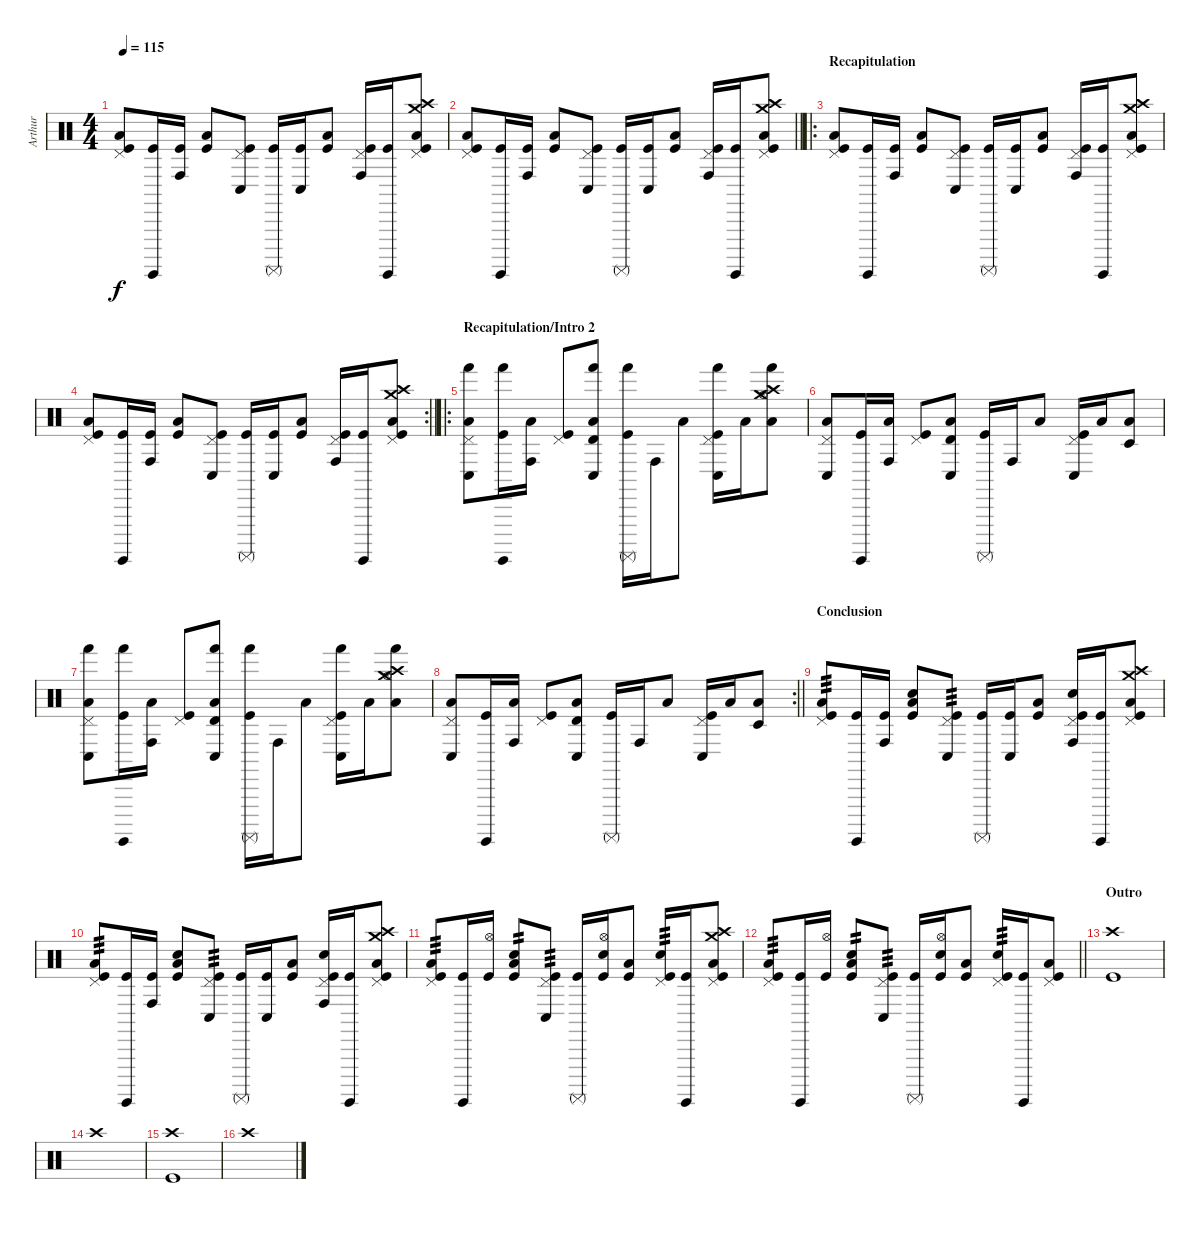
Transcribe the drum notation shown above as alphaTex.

\track ("Arthur" "Arthur") {instrument percussion}
\staff {score}
\articulation defaults
\ts (4 4)
\tempo 115
\clef neutral
\ks c
("Low Tom (hit)" "Pedal Hi-Hat (hit)" "Kick (hit)").8{dy f} ("Surdo (hit)" "Kick (hit)").16 ("Conga high (hit)" "Kick (hit)").16 ("Low Floor Tom (hit)" "Kick (hit)").8 ("Conga low (hit)" "Pedal Hi-Hat (hit)" "Kick (hit)").8 ("Surdo (mute)" "Kick (hit)").16 ("Conga low (hit)" "Kick (hit)").16 ("Low Tom (hit)" "Kick (hit)").8 ("Conga high (hit)" "Pedal Hi-Hat (hit)" "Kick (hit)").16 ("Surdo (hit)" "Kick (hit)").16 ("Crash high (hit)" "Crash medium (hit)" "Low Floor Tom (hit)" "Pedal Hi-Hat (hit)" "Kick (hit)").8 |
\barLineRight lightlight
("Low Tom (hit)" "Pedal Hi-Hat (hit)" "Kick (hit)").8 ("Surdo (hit)" "Kick (hit)").16 ("Conga high (hit)" "Kick (hit)").16 ("Low Floor Tom (hit)" "Kick (hit)").8 ("Conga low (hit)" "Pedal Hi-Hat (hit)" "Kick (hit)").8 ("Surdo (mute)" "Kick (hit)").16 ("Conga low (hit)" "Kick (hit)").16 ("Low Tom (hit)" "Kick (hit)").8 ("Conga high (hit)" "Pedal Hi-Hat (hit)" "Kick (hit)").16 ("Surdo (hit)" "Kick (hit)").16 ("Crash high (hit)" "Crash medium (hit)" "Low Floor Tom (hit)" "Pedal Hi-Hat (hit)" "Kick (hit)").8 |
\ro
\section ("" "Recapitulation")
("Low Tom (hit)" "Pedal Hi-Hat (hit)" "Kick (hit)").8 ("Surdo (hit)" "Kick (hit)").16 ("Conga high (hit)" "Kick (hit)").16 ("Low Floor Tom (hit)" "Kick (hit)").8 ("Conga low (hit)" "Pedal Hi-Hat (hit)" "Kick (hit)").8 ("Surdo (mute)" "Kick (hit)").16 ("Conga low (hit)" "Kick (hit)").16 ("Low Tom (hit)" "Kick (hit)").8 ("Conga high (hit)" "Pedal Hi-Hat (hit)" "Kick (hit)").16 ("Surdo (hit)" "Kick (hit)").16 ("Crash high (hit)" "Crash medium (hit)" "Low Floor Tom (hit)" "Pedal Hi-Hat (hit)" "Kick (hit)").8 |
\rc 2
\barLineRight lightlight
("Low Tom (hit)" "Pedal Hi-Hat (hit)" "Kick (hit)").8 ("Surdo (hit)" "Kick (hit)").16 ("Conga high (hit)" "Kick (hit)").16 ("Low Floor Tom (hit)" "Kick (hit)").8 ("Conga low (hit)" "Pedal Hi-Hat (hit)" "Kick (hit)").8 ("Surdo (mute)" "Kick (hit)").16 ("Conga low (hit)" "Kick (hit)").16 ("Low Tom (hit)" "Kick (hit)").8 ("Conga high (hit)" "Pedal Hi-Hat (hit)" "Kick (hit)").16 ("Surdo (hit)" "Kick (hit)").16 ("Crash high (hit)" "Crash medium (hit)" "Low Floor Tom (hit)" "Pedal Hi-Hat (hit)" "Kick (hit)").8 |
\ro
\section ("" "Recapitulation/Intro 2")
("Conga low (hit)" "Pedal Hi-Hat (hit)" "Low Tom (hit)" "Hand (hit)").8 ("Hand (hit)" "Surdo (hit)" "Kick (hit)").16 ("Conga high (hit)" "Low Floor Tom (hit)").16 ("Pedal Hi-Hat (hit)" "Kick (hit)").8 ("Conga low (hit)" "Timbale high (hit)" "Low Tom (hit)" "Hand (hit)").8 ("Hand (hit)" "Surdo (mute)" "Kick (hit)").16 "Conga high (hit)".16 "Low Floor Tom (hit)".8 ("Conga low (hit)" "Hand (hit)" "Pedal Hi-Hat (hit)" "Kick (hit)").16 "Low Tom (hit)".16 ("Hi-Hat (open)" "Crash medium (hit)" "Crash high (hit)" "Low Tom (hit)" "Hand (hit)").8 |
("Conga low (hit)" "Pedal Hi-Hat (hit)" "Low Tom (hit)").8 ("Surdo (hit)" "Kick (hit)").16 ("Conga high (hit)" "Low Floor Tom (hit)").16 ("Pedal Hi-Hat (hit)" "Kick (hit)").8 ("Conga low (hit)" "Timbale high (hit)" "Low Tom (hit)").8 ("Surdo (mute)" "Kick (hit)").16 "Conga high (hit)".16 "Low Floor Tom (hit)".8 ("Conga low (hit)" "Pedal Hi-Hat (hit)" "Kick (hit)").16 "Low Tom (hit)".16 ("Timbale low (hit)" "Low Tom (hit)").8 |
("Conga low (hit)" "Pedal Hi-Hat (hit)" "Low Tom (hit)" "Hand (hit)").8 ("Hand (hit)" "Surdo (hit)" "Kick (hit)").16 ("Conga high (hit)" "Low Floor Tom (hit)").16 ("Pedal Hi-Hat (hit)" "Kick (hit)").8 ("Conga low (hit)" "Timbale high (hit)" "Low Tom (hit)" "Hand (hit)").8 ("Hand (hit)" "Surdo (mute)" "Kick (hit)").16 "Conga high (hit)".16 "Low Floor Tom (hit)".8 ("Conga low (hit)" "Hand (hit)" "Pedal Hi-Hat (hit)" "Kick (hit)").16 "Low Tom (hit)".16 ("Hi-Hat (open)" "Crash medium (hit)" "Crash high (hit)" "Low Tom (hit)" "Hand (hit)").8 |
\rc 2
\barLineRight lightlight
("Conga low (hit)" "Pedal Hi-Hat (hit)" "Low Tom (hit)").8 ("Surdo (hit)" "Kick (hit)").16 ("Conga high (hit)" "Low Floor Tom (hit)").16 ("Pedal Hi-Hat (hit)" "Kick (hit)").8 ("Conga low (hit)" "Timbale high (hit)" "Low Tom (hit)").8 ("Surdo (mute)" "Kick (hit)").16 "Conga high (hit)".16 "Low Floor Tom (hit)".8 ("Conga low (hit)" "Pedal Hi-Hat (hit)" "Kick (hit)").16 "Low Tom (hit)".16 ("Timbale low (hit)" "Low Tom (hit)").8 |
\section ("" "Conclusion")
("Low Tom (hit)" "Pedal Hi-Hat (hit)" "Kick (hit)").8{tp 3} ("Surdo (hit)" "Kick (hit)").16 ("Conga high (hit)" "Kick (hit)").16 ("Low Floor Tom (hit)" "Electric Snare (hit)" "Kick (hit)").8 ("Conga low (hit)" "Pedal Hi-Hat (hit)" "Kick (hit)").8{tp 3} ("Surdo (mute)" "Kick (hit)").16 ("Conga low (hit)" "Kick (hit)").16 ("Low Tom (hit)" "Kick (hit)").8 ("Conga high (hit)" "Electric Snare (hit)" "Pedal Hi-Hat (hit)" "Kick (hit)").16 ("Surdo (hit)" "Kick (hit)").16 ("Crash high (hit)" "Crash medium (hit)" "Low Floor Tom (hit)" "Pedal Hi-Hat (hit)" "Kick (hit)").8 |
("Low Tom (hit)" "Pedal Hi-Hat (hit)" "Kick (hit)").8{tp 3} ("Surdo (hit)" "Kick (hit)").16 ("Conga high (hit)" "Kick (hit)").16 ("Low Floor Tom (hit)" "Electric Snare (hit)" "Kick (hit)").8 ("Conga low (hit)" "Pedal Hi-Hat (hit)" "Kick (hit)").8{tp 3} ("Surdo (mute)" "Kick (hit)").16 ("Conga low (hit)" "Kick (hit)").16 ("Low Tom (hit)" "Kick (hit)").8 ("Conga high (hit)" "Electric Snare (hit)" "Pedal Hi-Hat (hit)" "Kick (hit)").16 ("Surdo (hit)" "Kick (hit)").16 ("Crash high (hit)" "Crash medium (hit)" "Low Floor Tom (hit)" "Pedal Hi-Hat (hit)" "Kick (hit)").8 |
("Low Tom (hit)" "Pedal Hi-Hat (hit)" "Kick (hit)").8{tp 3} ("Surdo (hit)" "Kick (hit)").16 ("Hi-Hat (open)" "Kick (hit)").16 ("Low Floor Tom (hit)" "Electric Snare (hit)" "Kick (hit)").8{tp 2} ("Conga low (hit)" "Pedal Hi-Hat (hit)" "Kick (hit)").8{tp 3} ("Surdo (mute)" "Kick (hit)").16 ("Hi-Hat (open)" "Electric Snare (hit)" "Kick (hit)").16 ("Low Tom (hit)" "Kick (hit)").8 ("Electric Snare (hit)" "Pedal Hi-Hat (hit)" "Kick (hit)").16{tp 3} ("Surdo (hit)" "Kick (hit)").16 ("Crash high (hit)" "Crash medium (hit)" "Low Floor Tom (hit)" "Pedal Hi-Hat (hit)" "Kick (hit)").8 |
\barLineRight lightlight
("Low Tom (hit)" "Pedal Hi-Hat (hit)" "Kick (hit)").8{tp 3} ("Surdo (hit)" "Kick (hit)").16 ("Hi-Hat (open)" "Kick (hit)").16 ("Low Floor Tom (hit)" "Electric Snare (hit)" "Kick (hit)").8{tp 2} ("Conga low (hit)" "Pedal Hi-Hat (hit)" "Kick (hit)").8{tp 3} ("Surdo (mute)" "Kick (hit)").16 ("Hi-Hat (open)" "Electric Snare (hit)" "Kick (hit)").16 ("Low Tom (hit)" "Kick (hit)").8 ("Electric Snare (hit)" "Pedal Hi-Hat (hit)" "Kick (hit)").16{tp 3} ("Surdo (hit)" "Kick (hit)").16 ("Low Floor Tom (hit)" "Pedal Hi-Hat (hit)" "Kick (hit)").8 |
\section ("" "Outro")
("Crash high (hit)" "Kick (hit)").1 |
"Crash high (hit)".1 |
("Crash high (hit)" "Kick (hit)").1 |
"Crash high (hit)".1
